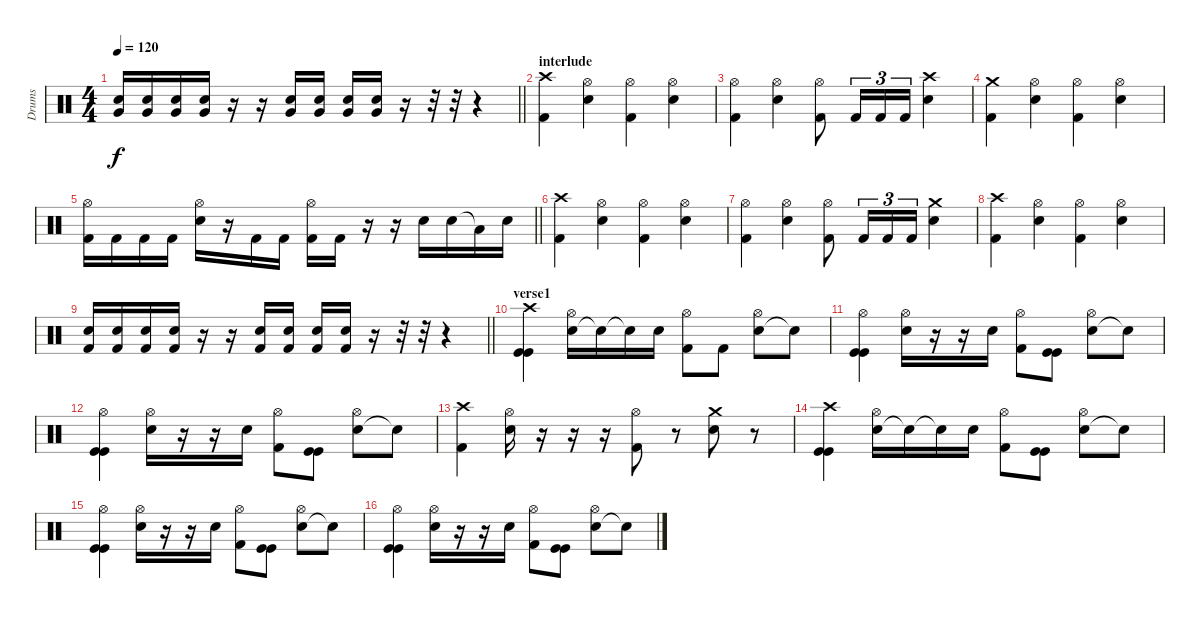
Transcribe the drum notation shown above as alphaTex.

\track ("Drums" "Drums") {instrument percussion}
\staff {score}
\articulation defaults
\ts (4 4)
\tempo 120
\clef neutral
\barLineRight lightlight
\ks c
("Electric Snare (hit)" "Very Low Tom (hit)").16{dy f} ("Electric Snare (hit)" "Very Low Tom (hit)").16 ("Electric Snare (hit)" "Very Low Tom (hit)").16 ("Electric Snare (hit)" "Very Low Tom (hit)").16 r.16 r.16 ("Electric Snare (hit)" "Very Low Tom (hit)").16 ("Electric Snare (hit)" "Very Low Tom (hit)").16 ("Electric Snare (hit)" "Very Low Tom (hit)").16 ("Electric Snare (hit)" "Very Low Tom (hit)").16 r.16 r.32 r.32 r.4 |
\section ("" "interlude")
("Kick (hit) 2" "Crash high (hit)").4 ("Snare (hit) 2" "Hi-Hat (open)").4 ("Kick (hit) 2" "Hi-Hat (open)").4 ("Snare (hit) 2" "Hi-Hat (open)").4 |
("Kick (hit) 2" "Hi-Hat (open)").4 ("Snare (hit) 2" "Hi-Hat (open)").4 ("Kick (hit) 2" "Hi-Hat (open)").8 "Kick (hit) 2".16{tu (3 2)} "Kick (hit) 2".16{tu (3 2)} "Kick (hit) 2".16{tu (3 2)} ("Snare (hit) 2" "Crash high (hit)").4 |
("Kick (hit) 2" "Crash medium (hit)").4 ("Snare (hit) 2" "Hi-Hat (open)").4 ("Kick (hit) 2" "Hi-Hat (open)").4 ("Snare (hit) 2" "Hi-Hat (open)").4 |
\barLineRight lightlight
("Kick (hit) 2" "Hi-Hat (open)").16 "Kick (hit) 2".16 "Kick (hit) 2".16 "Kick (hit) 2".16 ("Snare (hit) 2" "Hi-Hat (open)").16 r.16 "Kick (hit) 2".16 "Kick (hit) 2".16 ("Kick (hit) 2" "Hi-Hat (open)").16 "Kick (hit) 2".16 r.16 r.16 "Snare (hit) 2".16 "Snare (hit) 2".16 "Low Tom (hit)"{t}.16 "Snare (hit) 2".16 |
("Kick (hit) 2" "Crash high (hit)").4 ("Snare (hit) 2" "Hi-Hat (open)").4 ("Kick (hit) 2" "Hi-Hat (open)").4 ("Snare (hit) 2" "Hi-Hat (open)").4 |
("Kick (hit) 2" "Hi-Hat (open)").4 ("Snare (hit) 2" "Hi-Hat (open)").4 ("Kick (hit) 2" "Hi-Hat (open)").8 "Kick (hit) 2".16{tu (3 2)} "Kick (hit) 2".16{tu (3 2)} "Kick (hit) 2".16{tu (3 2)} ("Snare (hit) 2" "Crash medium (hit)").4 |
("Kick (hit) 2" "Crash high (hit)").4 ("Snare (hit) 2" "Hi-Hat (open)").4 ("Kick (hit) 2" "Hi-Hat (open)").4 ("Snare (hit) 2" "Hi-Hat (open)").4 |
\barLineRight lightlight
("Electric Snare (hit)" "Kick (hit) 2").16 ("Electric Snare (hit)" "Kick (hit) 2").16 ("Electric Snare (hit)" "Kick (hit) 2").16 ("Electric Snare (hit)" "Kick (hit) 2").16 r.16 r.16 ("Electric Snare (hit)" "Kick (hit) 2").16 ("Electric Snare (hit)" "Kick (hit) 2").16 ("Electric Snare (hit)" "Kick (hit) 2").16 ("Electric Snare (hit)" "Kick (hit) 2").16 r.16 r.32 r.32 r.4 |
\section ("" "verse1")
("Kick (hit)" "Kick (hit)" "Crash high (hit)").4 ("Snare (hit) 2" "Hi-Hat (open)").16 "Snare (hit)"{t}.16 "Snare (hit)"{t}.16 "Snare (hit) 2".16 ("Kick (hit) 2" "Hi-Hat (open)").8 "Kick (hit) 2".8 ("Snare (hit) 2" "Hi-Hat (open)").8 "Snare (hit)"{t}.8 |
("Kick (hit)" "Kick (hit)" "Hi-Hat (open)").4 ("Snare (hit) 2" "Hi-Hat (open)").16 r.16 r.16 "Snare (hit) 2".16 ("Kick (hit) 2" "Hi-Hat (open)").8 ("Kick (hit)" "Kick (hit)").8 ("Snare (hit) 2" "Hi-Hat (open)").8 "Snare (hit)"{t}.8 |
("Kick (hit)" "Kick (hit)" "Hi-Hat (open)").4 ("Snare (hit) 2" "Hi-Hat (open)").16 r.16 r.16 "Snare (hit) 2".16 ("Kick (hit) 2" "Hi-Hat (open)").8 ("Kick (hit)" "Kick (hit)").8 ("Snare (hit) 2" "Hi-Hat (open)").8 "Snare (hit)"{t}.8 |
("Kick (hit) 2" "Crash high (hit)").4 ("Snare (hit) 2" "Hi-Hat (open)").16 r.16 r.16 r.16 ("Kick (hit) 2" "Hi-Hat (open)").8 r.8 ("Electric Snare (hit)" "Crash medium (hit)").8 r.8 |
("Kick (hit)" "Kick (hit)" "Crash high (hit)").4 ("Snare (hit) 2" "Hi-Hat (open)").16 "Snare (hit)"{t}.16 "Snare (hit)"{t}.16 "Snare (hit) 2".16 ("Kick (hit) 2" "Hi-Hat (open)").8 ("Kick (hit)" "Kick (hit)").8 ("Snare (hit) 2" "Hi-Hat (open)").8 "Snare (hit)"{t}.8 |
("Kick (hit)" "Kick (hit)" "Hi-Hat (open)").4 ("Snare (hit) 2" "Hi-Hat (open)").16 r.16 r.16 "Snare (hit) 2".16 ("Kick (hit) 2" "Hi-Hat (open)").8 ("Kick (hit)" "Kick (hit)").8 ("Snare (hit) 2" "Hi-Hat (open)").8 "Snare (hit)"{t}.8 |
("Kick (hit)" "Kick (hit)" "Hi-Hat (open)").4 ("Snare (hit) 2" "Hi-Hat (open)").16 r.16 r.16 "Snare (hit) 2".16 ("Kick (hit) 2" "Hi-Hat (open)").8 ("Kick (hit)" "Kick (hit)").8 ("Snare (hit) 2" "Hi-Hat (open)").8 "Snare (hit)"{t}.8
